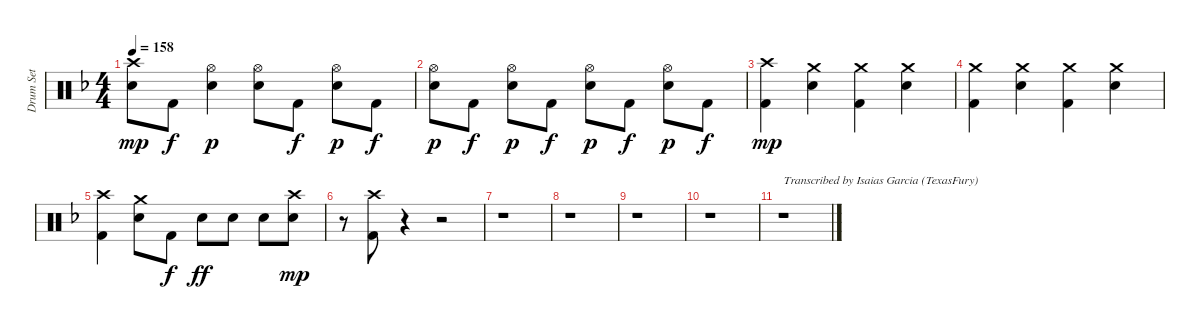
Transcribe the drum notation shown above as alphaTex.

\track ("Drum Set" "Drum Set") {instrument percussion}
\staff {score}
\articulation defaults
\ts (4 4)
\tempo 158
\clef neutral
\ks f
("Electric Snare (hit)" "Crash high (hit)").8{dy mp} "Kick (hit) 2".8{dy f} ("Electric Snare (hit)" "Hi-Hat (open)").4{dy p} ("Electric Snare (hit)" "Hi-Hat (open)").8 "Kick (hit) 2".8{dy f} ("Electric Snare (hit)" "Hi-Hat (open)").8{dy p} "Kick (hit) 2".8{dy f} |
("Electric Snare (hit)" "Hi-Hat (open)").8{dy p} "Kick (hit) 2".8{dy f} ("Electric Snare (hit)" "Hi-Hat (open)").8{dy p} "Kick (hit) 2".8{dy f} ("Electric Snare (hit)" "Hi-Hat (open)").8{dy p} "Kick (hit) 2".8{dy f} ("Electric Snare (hit)" "Hi-Hat (open)").8{dy p} "Kick (hit) 2".8{dy f} |
("Kick (hit) 2" "Crash high (hit)").4{dy mp} ("Electric Snare (hit)" "Crash medium (hit)").4 ("Kick (hit) 2" "Crash medium (hit)").4 ("Electric Snare (hit)" "Crash medium (hit)").4 |
("Kick (hit) 2" "Crash medium (hit)").4 ("Electric Snare (hit)" "Crash medium (hit)").4 ("Kick (hit) 2" "Crash medium (hit)").4 ("Electric Snare (hit)" "Crash medium (hit)").4 |
("Kick (hit) 2" "Crash high (hit)").4 ("Crash medium (hit)" "Electric Snare (hit)").8 "Kick (hit) 2".8{dy f} "Electric Snare (hit)".8{dy ff} "Electric Snare (hit)".8 "Electric Snare (hit)".8 ("Electric Snare (hit)" "Crash high (hit)").8{dy mp} |
r.8 ("Crash high (hit)" "Kick (hit) 2").8 r.4 r.2 |
r.1 |
r.1 |
r.1 |
r.1 |
r.1{txt "Transcribed by Isaias Garcia (TexasFury)"}
